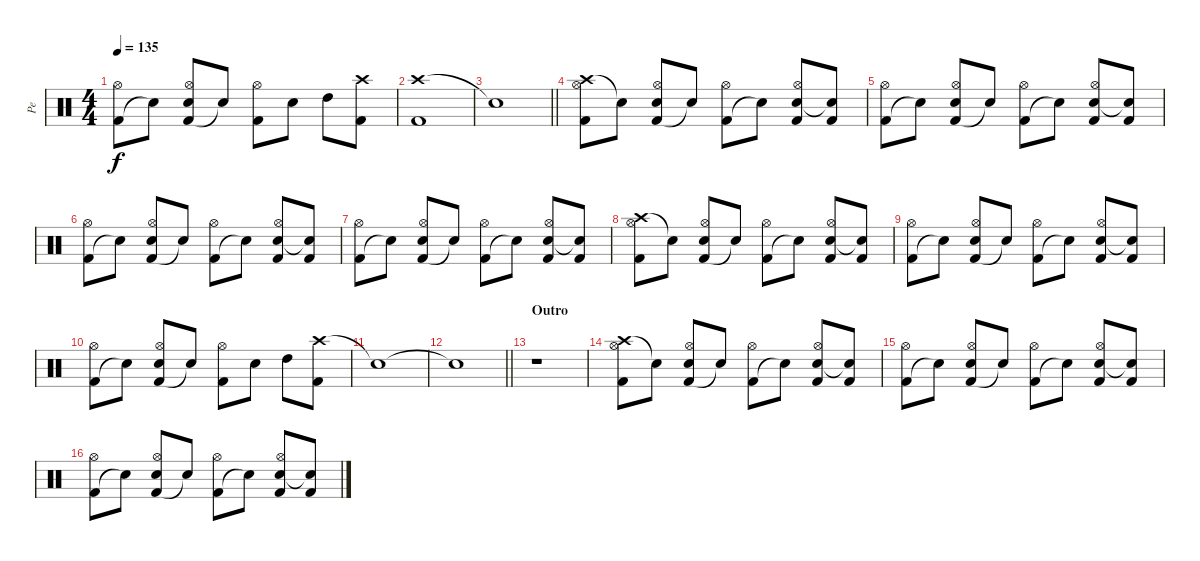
\track ("Pe" "Pe") {instrument percussion}
\staff {score}
\articulation defaults
\ts (4 4)
\tempo 135
\clef neutral
\ks c
("Kick (hit) 2" "Hi-Hat (open)").8{dy f} "Snare (hit)"{t}.8 ("Kick (hit) 2" "Electric Snare (hit)" "Hi-Hat (open)").8 "Snare (hit)"{t}.8 ("Kick (hit) 2" "Hi-Hat (open)").8 "Electric Snare (hit)".8 "High Tom (hit)".8 ("Crash high (hit)" "Kick (hit) 2").8 |
("Crash high (hit)" "Kick (hit) 2").1 |
\barLineRight lightlight "Snare (hit)"{t}.1
|
("Crash high (hit)" "Kick (hit) 2" "Hi-Hat (open)").8 "Snare (hit)"{t}.8 ("Kick (hit) 2" "Electric Snare (hit)" "Hi-Hat (open)").8 "Snare (hit)"{t}.8 ("Kick (hit) 2" "Hi-Hat (open)").8 "Snare (hit)"{t}.8 ("Kick (hit) 2" "Electric Snare (hit)" "Hi-Hat (open)").8 ("Kick (hit) 2" "Snare (hit)"{t}).8 |
("Kick (hit) 2" "Hi-Hat (open)").8 "Snare (hit)"{t}.8 ("Kick (hit) 2" "Electric Snare (hit)" "Hi-Hat (open)").8 "Snare (hit)"{t}.8 ("Kick (hit) 2" "Hi-Hat (open)").8 "Snare (hit)"{t}.8 ("Kick (hit) 2" "Electric Snare (hit)" "Hi-Hat (open)").8 ("Kick (hit) 2" "Snare (hit)"{t}).8 |
("Kick (hit) 2" "Hi-Hat (open)").8 "Snare (hit)"{t}.8 ("Kick (hit) 2" "Electric Snare (hit)" "Hi-Hat (open)").8 "Snare (hit)"{t}.8 ("Kick (hit) 2" "Hi-Hat (open)").8 "Snare (hit)"{t}.8 ("Kick (hit) 2" "Electric Snare (hit)" "Hi-Hat (open)").8 ("Kick (hit) 2" "Snare (hit)"{t}).8 |
("Kick (hit) 2" "Hi-Hat (open)").8 "Snare (hit)"{t}.8 ("Kick (hit) 2" "Electric Snare (hit)" "Hi-Hat (open)").8 "Snare (hit)"{t}.8 ("Kick (hit) 2" "Hi-Hat (open)").8 "Snare (hit)"{t}.8 ("Kick (hit) 2" "Electric Snare (hit)" "Hi-Hat (open)").8 ("Kick (hit) 2" "Snare (hit)"{t}).8 |
("Crash high (hit)" "Kick (hit) 2" "Hi-Hat (open)").8 "Snare (hit)"{t}.8 ("Kick (hit) 2" "Electric Snare (hit)" "Hi-Hat (open)").8 "Snare (hit)"{t}.8 ("Kick (hit) 2" "Hi-Hat (open)").8 "Snare (hit)"{t}.8 ("Kick (hit) 2" "Electric Snare (hit)" "Hi-Hat (open)").8 ("Kick (hit) 2" "Snare (hit)"{t}).8 |
("Kick (hit) 2" "Hi-Hat (open)").8 "Snare (hit)"{t}.8 ("Kick (hit) 2" "Electric Snare (hit)" "Hi-Hat (open)").8 "Snare (hit)"{t}.8 ("Kick (hit) 2" "Hi-Hat (open)").8 "Snare (hit)"{t}.8 ("Kick (hit) 2" "Electric Snare (hit)" "Hi-Hat (open)").8 ("Kick (hit) 2" "Snare (hit)"{t}).8 |
("Kick (hit) 2" "Hi-Hat (open)").8 "Snare (hit)"{t}.8 ("Kick (hit) 2" "Electric Snare (hit)" "Hi-Hat (open)").8 "Snare (hit)"{t}.8 ("Kick (hit) 2" "Hi-Hat (open)").8 "Electric Snare (hit)".8 "High Tom (hit)".8 ("Crash high (hit)" "Kick (hit) 2").8 |
"Snare (hit)"{t}.1 |
\barLineRight lightlight "Snare (hit)"{t}.1
|
\section ("" "Outro")
r.1 |
("Crash high (hit)" "Kick (hit) 2" "Hi-Hat (open)").8 "Snare (hit)"{t}.8 ("Kick (hit) 2" "Electric Snare (hit)" "Hi-Hat (open)").8 "Snare (hit)"{t}.8 ("Kick (hit) 2" "Hi-Hat (open)").8 "Snare (hit)"{t}.8 ("Kick (hit) 2" "Electric Snare (hit)" "Hi-Hat (open)").8 ("Kick (hit) 2" "Snare (hit)"{t}).8 |
("Kick (hit) 2" "Hi-Hat (open)").8 "Snare (hit)"{t}.8 ("Kick (hit) 2" "Electric Snare (hit)" "Hi-Hat (open)").8 "Snare (hit)"{t}.8 ("Kick (hit) 2" "Hi-Hat (open)").8 "Snare (hit)"{t}.8 ("Kick (hit) 2" "Electric Snare (hit)" "Hi-Hat (open)").8 ("Kick (hit) 2" "Snare (hit)"{t}).8 |
("Kick (hit) 2" "Hi-Hat (open)").8 "Snare (hit)"{t}.8 ("Kick (hit) 2" "Electric Snare (hit)" "Hi-Hat (open)").8 "Snare (hit)"{t}.8 ("Kick (hit) 2" "Hi-Hat (open)").8 "Snare (hit)"{t}.8 ("Kick (hit) 2" "Electric Snare (hit)" "Hi-Hat (open)").8 ("Kick (hit) 2" "Snare (hit)"{t}).8
